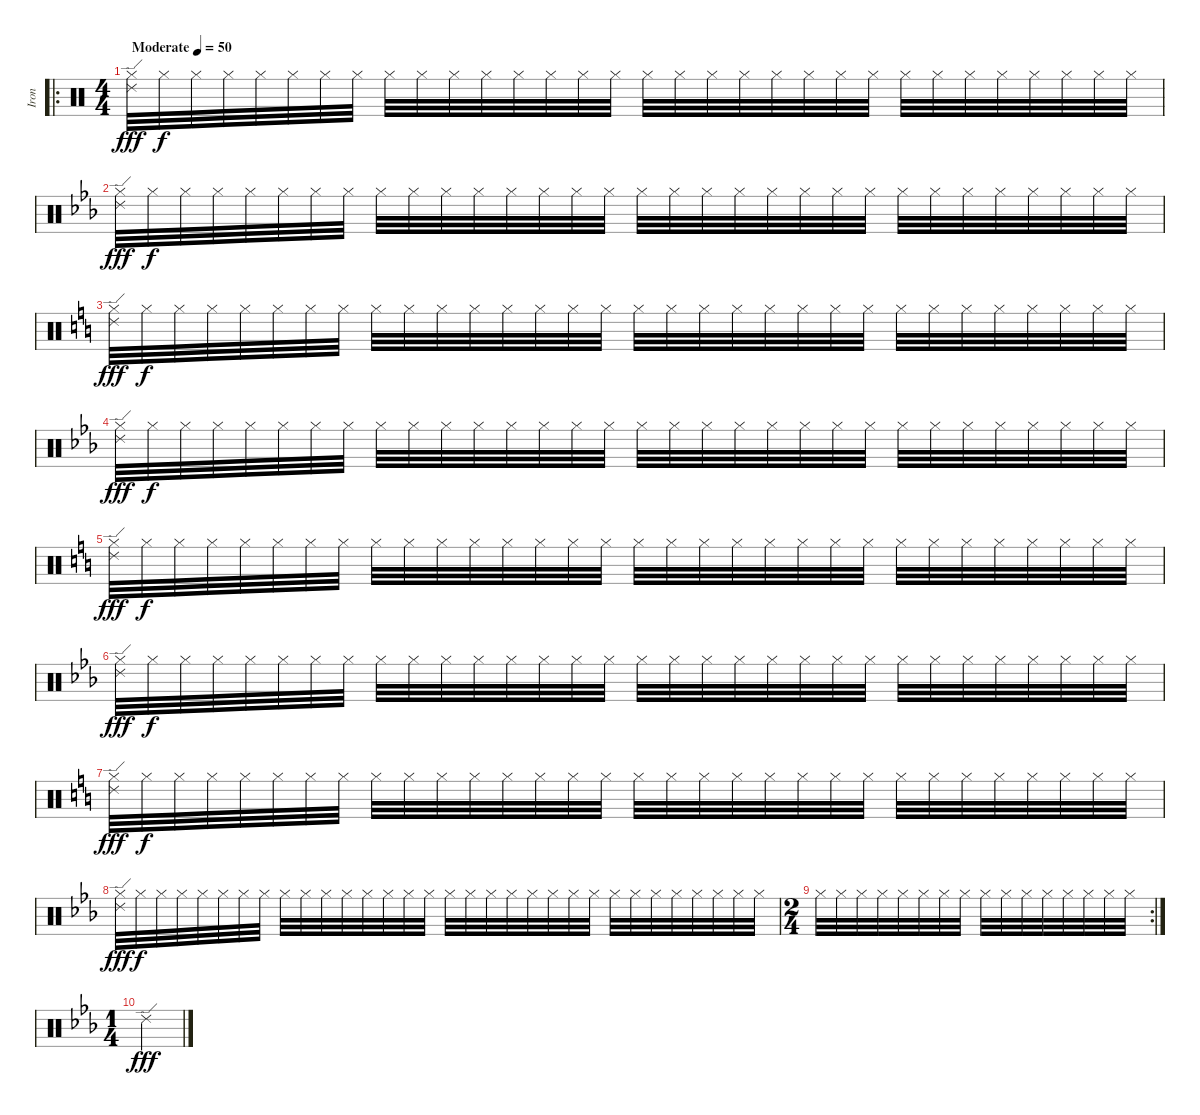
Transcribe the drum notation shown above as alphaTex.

\track ("Iron" "Iron") {instrument percussion}
\staff
\articulation defaults
\ro
\ts (4 4)
\tempo (50 "Moderate")
\clef neutral
\ks aminor
("Ride (edge) 2" "Hi-Hat (closed)").32{dy fff} "Hi-Hat (closed)".32{dy f} "Hi-Hat (closed)".32 "Hi-Hat (closed)".32 "Hi-Hat (closed)".32 "Hi-Hat (closed)".32 "Hi-Hat (closed)".32 "Hi-Hat (closed)".32 "Hi-Hat (closed)".32 "Hi-Hat (closed)".32 "Hi-Hat (closed)".32 "Hi-Hat (closed)".32 "Hi-Hat (closed)".32 "Hi-Hat (closed)".32 "Hi-Hat (closed)".32 "Hi-Hat (closed)".32 "Hi-Hat (closed)".32 "Hi-Hat (closed)".32 "Hi-Hat (closed)".32 "Hi-Hat (closed)".32 "Hi-Hat (closed)".32 "Hi-Hat (closed)".32 "Hi-Hat (closed)".32 "Hi-Hat (closed)".32 "Hi-Hat (closed)".32 "Hi-Hat (closed)".32 "Hi-Hat (closed)".32 "Hi-Hat (closed)".32 "Hi-Hat (closed)".32 "Hi-Hat (closed)".32 "Hi-Hat (closed)".32 "Hi-Hat (closed)".32 |
\ks cminor
("Ride (edge) 2" "Hi-Hat (closed)").32{dy fff} "Hi-Hat (closed)".32{dy f} "Hi-Hat (closed)".32 "Hi-Hat (closed)".32 "Hi-Hat (closed)".32 "Hi-Hat (closed)".32 "Hi-Hat (closed)".32 "Hi-Hat (closed)".32 "Hi-Hat (closed)".32 "Hi-Hat (closed)".32 "Hi-Hat (closed)".32 "Hi-Hat (closed)".32 "Hi-Hat (closed)".32 "Hi-Hat (closed)".32 "Hi-Hat (closed)".32 "Hi-Hat (closed)".32 "Hi-Hat (closed)".32 "Hi-Hat (closed)".32 "Hi-Hat (closed)".32 "Hi-Hat (closed)".32 "Hi-Hat (closed)".32 "Hi-Hat (closed)".32 "Hi-Hat (closed)".32 "Hi-Hat (closed)".32 "Hi-Hat (closed)".32 "Hi-Hat (closed)".32 "Hi-Hat (closed)".32 "Hi-Hat (closed)".32 "Hi-Hat (closed)".32 "Hi-Hat (closed)".32 "Hi-Hat (closed)".32 "Hi-Hat (closed)".32 |
\ks aminor
("Ride (edge) 2" "Hi-Hat (closed)").32{dy fff} "Hi-Hat (closed)".32{dy f} "Hi-Hat (closed)".32 "Hi-Hat (closed)".32 "Hi-Hat (closed)".32 "Hi-Hat (closed)".32 "Hi-Hat (closed)".32 "Hi-Hat (closed)".32 "Hi-Hat (closed)".32 "Hi-Hat (closed)".32 "Hi-Hat (closed)".32 "Hi-Hat (closed)".32 "Hi-Hat (closed)".32 "Hi-Hat (closed)".32 "Hi-Hat (closed)".32 "Hi-Hat (closed)".32 "Hi-Hat (closed)".32 "Hi-Hat (closed)".32 "Hi-Hat (closed)".32 "Hi-Hat (closed)".32 "Hi-Hat (closed)".32 "Hi-Hat (closed)".32 "Hi-Hat (closed)".32 "Hi-Hat (closed)".32 "Hi-Hat (closed)".32 "Hi-Hat (closed)".32 "Hi-Hat (closed)".32 "Hi-Hat (closed)".32 "Hi-Hat (closed)".32 "Hi-Hat (closed)".32 "Hi-Hat (closed)".32 "Hi-Hat (closed)".32 |
\ks cminor
("Ride (edge) 2" "Hi-Hat (closed)").32{dy fff} "Hi-Hat (closed)".32{dy f} "Hi-Hat (closed)".32 "Hi-Hat (closed)".32 "Hi-Hat (closed)".32 "Hi-Hat (closed)".32 "Hi-Hat (closed)".32 "Hi-Hat (closed)".32 "Hi-Hat (closed)".32 "Hi-Hat (closed)".32 "Hi-Hat (closed)".32 "Hi-Hat (closed)".32 "Hi-Hat (closed)".32 "Hi-Hat (closed)".32 "Hi-Hat (closed)".32 "Hi-Hat (closed)".32 "Hi-Hat (closed)".32 "Hi-Hat (closed)".32 "Hi-Hat (closed)".32 "Hi-Hat (closed)".32 "Hi-Hat (closed)".32 "Hi-Hat (closed)".32 "Hi-Hat (closed)".32 "Hi-Hat (closed)".32 "Hi-Hat (closed)".32 "Hi-Hat (closed)".32 "Hi-Hat (closed)".32 "Hi-Hat (closed)".32 "Hi-Hat (closed)".32 "Hi-Hat (closed)".32 "Hi-Hat (closed)".32 "Hi-Hat (closed)".32 |
\ks aminor
("Ride (edge) 2" "Hi-Hat (closed)").32{dy fff} "Hi-Hat (closed)".32{dy f} "Hi-Hat (closed)".32 "Hi-Hat (closed)".32 "Hi-Hat (closed)".32 "Hi-Hat (closed)".32 "Hi-Hat (closed)".32 "Hi-Hat (closed)".32 "Hi-Hat (closed)".32 "Hi-Hat (closed)".32 "Hi-Hat (closed)".32 "Hi-Hat (closed)".32 "Hi-Hat (closed)".32 "Hi-Hat (closed)".32 "Hi-Hat (closed)".32 "Hi-Hat (closed)".32 "Hi-Hat (closed)".32 "Hi-Hat (closed)".32 "Hi-Hat (closed)".32 "Hi-Hat (closed)".32 "Hi-Hat (closed)".32 "Hi-Hat (closed)".32 "Hi-Hat (closed)".32 "Hi-Hat (closed)".32 "Hi-Hat (closed)".32 "Hi-Hat (closed)".32 "Hi-Hat (closed)".32 "Hi-Hat (closed)".32 "Hi-Hat (closed)".32 "Hi-Hat (closed)".32 "Hi-Hat (closed)".32 "Hi-Hat (closed)".32 |
\ks cminor
("Ride (edge) 2" "Hi-Hat (closed)").32{dy fff} "Hi-Hat (closed)".32{dy f} "Hi-Hat (closed)".32 "Hi-Hat (closed)".32 "Hi-Hat (closed)".32 "Hi-Hat (closed)".32 "Hi-Hat (closed)".32 "Hi-Hat (closed)".32 "Hi-Hat (closed)".32 "Hi-Hat (closed)".32 "Hi-Hat (closed)".32 "Hi-Hat (closed)".32 "Hi-Hat (closed)".32 "Hi-Hat (closed)".32 "Hi-Hat (closed)".32 "Hi-Hat (closed)".32 "Hi-Hat (closed)".32 "Hi-Hat (closed)".32 "Hi-Hat (closed)".32 "Hi-Hat (closed)".32 "Hi-Hat (closed)".32 "Hi-Hat (closed)".32 "Hi-Hat (closed)".32 "Hi-Hat (closed)".32 "Hi-Hat (closed)".32 "Hi-Hat (closed)".32 "Hi-Hat (closed)".32 "Hi-Hat (closed)".32 "Hi-Hat (closed)".32 "Hi-Hat (closed)".32 "Hi-Hat (closed)".32 "Hi-Hat (closed)".32 |
\ks aminor
("Ride (edge) 2" "Hi-Hat (closed)").32{dy fff} "Hi-Hat (closed)".32{dy f} "Hi-Hat (closed)".32 "Hi-Hat (closed)".32 "Hi-Hat (closed)".32 "Hi-Hat (closed)".32 "Hi-Hat (closed)".32 "Hi-Hat (closed)".32 "Hi-Hat (closed)".32 "Hi-Hat (closed)".32 "Hi-Hat (closed)".32 "Hi-Hat (closed)".32 "Hi-Hat (closed)".32 "Hi-Hat (closed)".32 "Hi-Hat (closed)".32 "Hi-Hat (closed)".32 "Hi-Hat (closed)".32 "Hi-Hat (closed)".32 "Hi-Hat (closed)".32 "Hi-Hat (closed)".32 "Hi-Hat (closed)".32 "Hi-Hat (closed)".32 "Hi-Hat (closed)".32 "Hi-Hat (closed)".32 "Hi-Hat (closed)".32 "Hi-Hat (closed)".32 "Hi-Hat (closed)".32 "Hi-Hat (closed)".32 "Hi-Hat (closed)".32 "Hi-Hat (closed)".32 "Hi-Hat (closed)".32 "Hi-Hat (closed)".32 |
\ks cminor
("Ride (edge) 2" "Hi-Hat (closed)").32{dy fff} "Hi-Hat (closed)".32{dy f} "Hi-Hat (closed)".32 "Hi-Hat (closed)".32 "Hi-Hat (closed)".32 "Hi-Hat (closed)".32 "Hi-Hat (closed)".32 "Hi-Hat (closed)".32 "Hi-Hat (closed)".32 "Hi-Hat (closed)".32 "Hi-Hat (closed)".32 "Hi-Hat (closed)".32 "Hi-Hat (closed)".32 "Hi-Hat (closed)".32 "Hi-Hat (closed)".32 "Hi-Hat (closed)".32 "Hi-Hat (closed)".32 "Hi-Hat (closed)".32 "Hi-Hat (closed)".32 "Hi-Hat (closed)".32 "Hi-Hat (closed)".32 "Hi-Hat (closed)".32 "Hi-Hat (closed)".32 "Hi-Hat (closed)".32 "Hi-Hat (closed)".32 "Hi-Hat (closed)".32 "Hi-Hat (closed)".32 "Hi-Hat (closed)".32 "Hi-Hat (closed)".32 "Hi-Hat (closed)".32 "Hi-Hat (closed)".32 "Hi-Hat (closed)".32 |
\rc 2
\ts (2 4)
"Hi-Hat (closed)".32 "Hi-Hat (closed)".32 "Hi-Hat (closed)".32 "Hi-Hat (closed)".32 "Hi-Hat (closed)".32 "Hi-Hat (closed)".32 "Hi-Hat (closed)".32 "Hi-Hat (closed)".32 "Hi-Hat (closed)".32 "Hi-Hat (closed)".32 "Hi-Hat (closed)".32 "Hi-Hat (closed)".32 "Hi-Hat (closed)".32 "Hi-Hat (closed)".32 "Hi-Hat (closed)".32 "Hi-Hat (closed)".32 |
\ts (1 4)
"Ride (edge) 2".4{dy fff}
